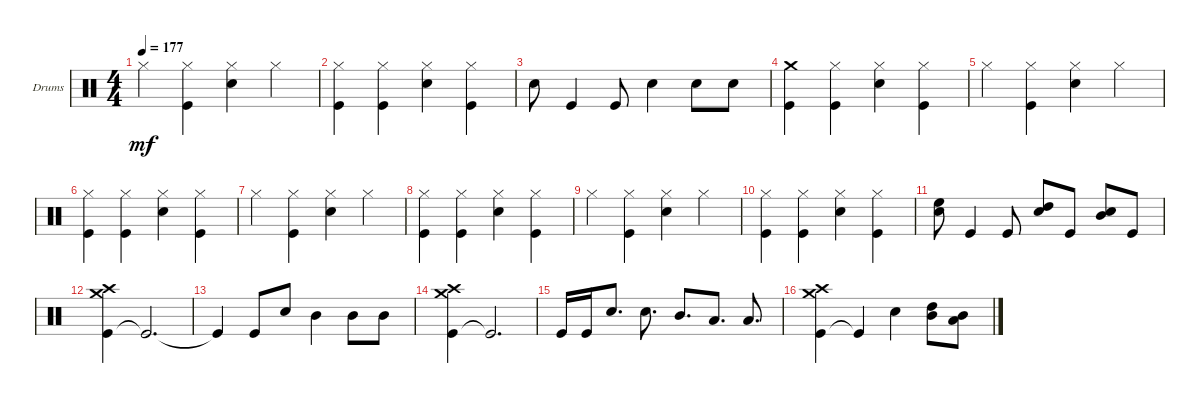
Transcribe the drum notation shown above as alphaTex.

\defaultSystemsLayout 4
\bracketExtendMode groupsimilarinstruments
\firstSystemTrackNameOrientation horizontal
\otherSystemsTrackNameOrientation horizontal
\track ("Johnny Kelly" "Drums") {instrument percussion}
\staff {score}
\articulation defaults
\ts (4 4)
\tempo 177
\clef neutral
\ks c "Hi-Hat (closed)".4{dy mf}
("Kick (hit)" "Hi-Hat (closed)").4 ("Snare (hit) 2" "Hi-Hat (closed)").4 "Hi-Hat (closed)".4 |
("Kick (hit)" "Hi-Hat (closed)").4 ("Kick (hit)" "Hi-Hat (closed)").4 ("Snare (hit) 2" "Hi-Hat (closed)").4 ("Kick (hit)" "Hi-Hat (closed)").4 |
"Snare (hit) 2".8 "Kick (hit)".4 "Kick (hit)".8 "Snare (hit) 2".4 "Snare (hit) 2".8 "Snare (hit) 2".8 |
("Kick (hit)" "Crash medium (hit)").4 ("Kick (hit)" "Hi-Hat (closed)").4 ("Snare (hit) 2" "Hi-Hat (closed)").4 ("Kick (hit)" "Hi-Hat (closed)").4 |
"Hi-Hat (closed)".4 ("Kick (hit)" "Hi-Hat (closed)").4 ("Snare (hit) 2" "Hi-Hat (closed)").4 "Hi-Hat (closed)".4 |
("Kick (hit)" "Hi-Hat (closed)").4 ("Kick (hit)" "Hi-Hat (closed)").4 ("Snare (hit) 2" "Hi-Hat (closed)").4 ("Kick (hit)" "Hi-Hat (closed)").4 |
"Hi-Hat (closed)".4 ("Kick (hit)" "Hi-Hat (closed)").4 ("Snare (hit) 2" "Hi-Hat (closed)").4 "Hi-Hat (closed)".4 |
("Kick (hit)" "Hi-Hat (closed)").4 ("Kick (hit)" "Hi-Hat (closed)").4 ("Snare (hit) 2" "Hi-Hat (closed)").4 ("Kick (hit)" "Hi-Hat (closed)").4 |
"Hi-Hat (closed)".4 ("Kick (hit)" "Hi-Hat (closed)").4 ("Snare (hit) 2" "Hi-Hat (closed)").4 "Hi-Hat (closed)".4 |
("Kick (hit)" "Hi-Hat (closed)").4 ("Kick (hit)" "Hi-Hat (closed)").4 ("Snare (hit) 2" "Hi-Hat (closed)").4 ("Kick (hit)" "Hi-Hat (closed)").4 |
("Snare (hit) 2" "High Floor Tom (hit)").8 "Kick (hit)".4 "Kick (hit)".8 ("Snare (hit) 2" "High Tom (hit)").8 "Kick (hit)".8 ("Snare (hit) 2" "Mid Tom (hit)").8 "Kick (hit)".8 |
("Kick (hit)" "Crash medium (hit)" "Crash high (hit)").4 "Kick (hit)"{t}.2{d} |
"Kick (hit)"{t}.4 "Kick (hit)".8 "Snare (hit) 2".8 "Mid Tom (hit)".4 "Mid Tom (hit)".8 "Mid Tom (hit)".8 |
("Kick (hit)" "Crash medium (hit)" "Crash high (hit)").4 "Kick (hit)"{t}.2{d} |
"Kick (hit)".16 "Kick (hit)".16 "Snare (hit) 2".8{d} "Snare (hit) 2".8{d} "Mid Tom (hit)".8{d} "Low Tom (hit)".8{d} "Low Tom (hit)".8{d} |
("Kick (hit)" "Crash medium (hit)" "Crash high (hit)").4 "Kick (hit)"{t}.4 "Snare (hit) 2".4 ("High Tom (hit)" "Mid Tom (hit)").8 ("Mid Tom (hit)" "Low Tom (hit)").8
